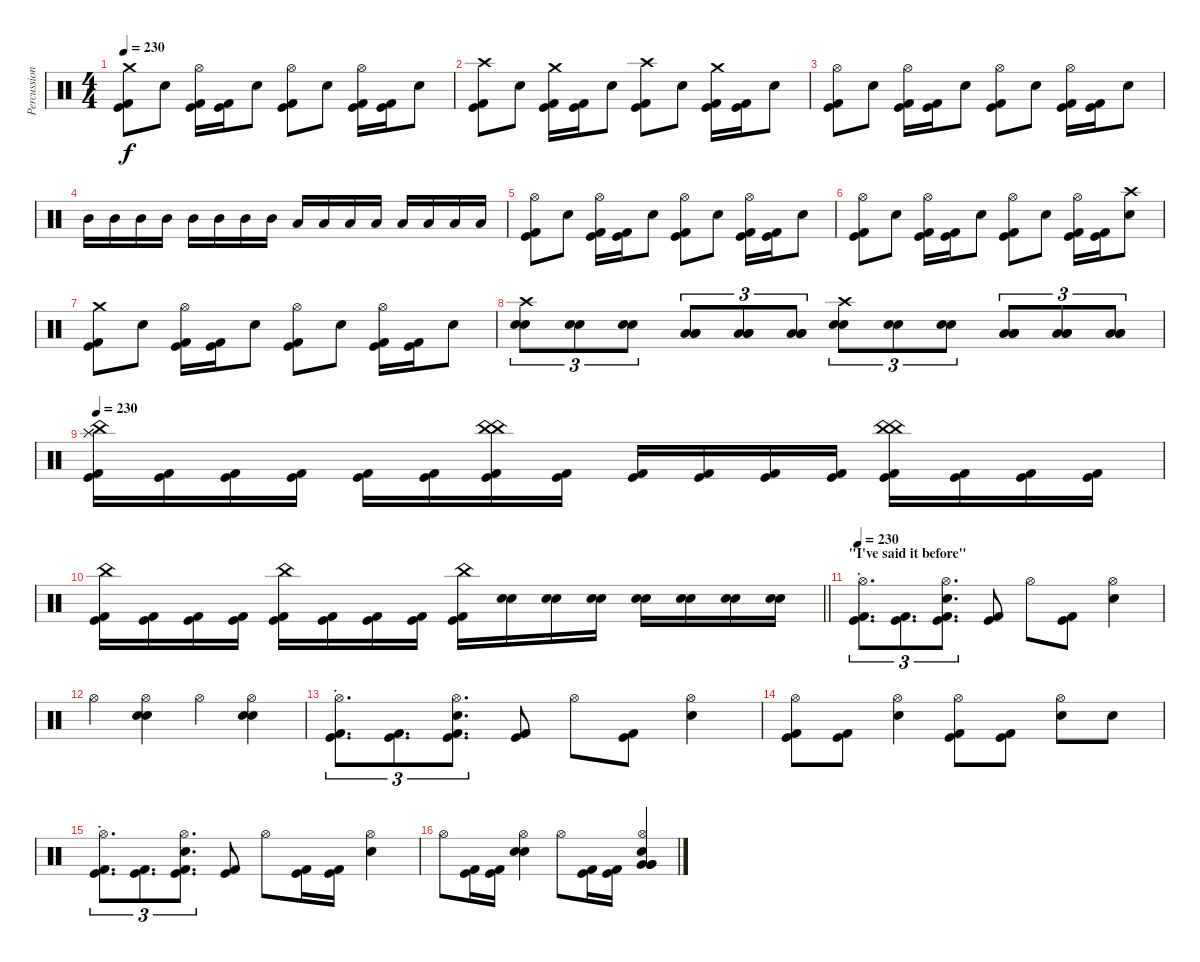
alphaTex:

\track ("Percussion" "Percussion") {instrument percussion}
\staff {score}
\articulation defaults
\ts (4 4)
\tempo 230
\clef neutral
\ks c
("Crash medium (hit)" "Kick (hit)" "Kick (hit) 2").8{dy f} "Electric Snare (hit)".8 ("Hi-Hat (open)" "Kick (hit)" "Kick (hit) 2").16 ("Kick (hit)" "Kick (hit) 2").16 "Electric Snare (hit)".8 ("Hi-Hat (open)" "Kick (hit)" "Kick (hit) 2").8 "Electric Snare (hit)".8 ("Hi-Hat (open)" "Kick (hit)" "Kick (hit) 2").16 ("Kick (hit)" "Kick (hit) 2").16 "Electric Snare (hit)".8 |
("Crash high (hit)" "Kick (hit)" "Kick (hit) 2").8 "Electric Snare (hit)".8 ("Crash medium (hit)" "Kick (hit)" "Kick (hit) 2").16 ("Kick (hit)" "Kick (hit) 2").16 "Electric Snare (hit)".8 ("Crash high (hit)" "Kick (hit)" "Kick (hit) 2").8 "Electric Snare (hit)".8 ("Crash medium (hit)" "Kick (hit)" "Kick (hit) 2").16 ("Kick (hit)" "Kick (hit) 2").16 "Electric Snare (hit)".8 |
("Hi-Hat (open)" "Kick (hit)" "Kick (hit) 2").8 "Electric Snare (hit)".8 ("Hi-Hat (open)" "Kick (hit)" "Kick (hit) 2").16 ("Kick (hit)" "Kick (hit) 2").16 "Electric Snare (hit)".8 ("Hi-Hat (open)" "Kick (hit)" "Kick (hit) 2").8 "Electric Snare (hit)".8 ("Hi-Hat (open)" "Kick (hit)" "Kick (hit) 2").16 ("Kick (hit)" "Kick (hit) 2").16 "Electric Snare (hit)".8 |
"Mid Tom (hit)".16 "Mid Tom (hit)".16 "Mid Tom (hit)".16 "Mid Tom (hit)".16 "Mid Tom (hit)".16 "Mid Tom (hit)".16 "Mid Tom (hit)".16 "Mid Tom (hit)".16 "Low Tom (hit)".16 "Low Tom (hit)".16 "Low Tom (hit)".16 "Low Tom (hit)".16 "Low Tom (hit)".16 "Low Tom (hit)".16 "Low Tom (hit)".16 "Low Tom (hit)".16 |
("Hi-Hat (open)" "Kick (hit)" "Kick (hit) 2").8 "Electric Snare (hit)".8 ("Hi-Hat (open)" "Kick (hit)" "Kick (hit) 2").16 ("Kick (hit)" "Kick (hit) 2").16 "Electric Snare (hit)".8 ("Hi-Hat (open)" "Kick (hit)" "Kick (hit) 2").8 "Electric Snare (hit)".8 ("Hi-Hat (open)" "Kick (hit)" "Kick (hit) 2").16 ("Kick (hit)" "Kick (hit) 2").16 "Electric Snare (hit)".8 |
("Hi-Hat (open)" "Kick (hit)" "Kick (hit) 2").8 "Electric Snare (hit)".8 ("Hi-Hat (open)" "Kick (hit)" "Kick (hit) 2").16 ("Kick (hit)" "Kick (hit) 2").16 "Electric Snare (hit)".8 ("Hi-Hat (open)" "Kick (hit)" "Kick (hit) 2").8 "Electric Snare (hit)".8 ("Hi-Hat (open)" "Kick (hit)" "Kick (hit) 2").16 ("Kick (hit)" "Kick (hit) 2").16 ("Crash high (hit)" "Electric Snare (hit)").8 |
("Crash medium (hit)" "Kick (hit)" "Kick (hit) 2").8 "Electric Snare (hit)".8 ("Hi-Hat (open)" "Kick (hit)" "Kick (hit) 2").16 ("Kick (hit)" "Kick (hit) 2").16 "Electric Snare (hit)".8 ("Hi-Hat (open)" "Kick (hit)" "Kick (hit) 2").8 "Electric Snare (hit)".8 ("Hi-Hat (open)" "Kick (hit)" "Kick (hit) 2").16 ("Kick (hit)" "Kick (hit) 2").16 "Electric Snare (hit)".8 |
("Crash high (hit)" "Snare (hit) 2" "Electric Snare (hit)").8{tu (3 2)} ("Snare (hit) 2" "Electric Snare (hit)").8{tu (3 2)} ("Snare (hit) 2" "Electric Snare (hit)").8{tu (3 2)} ("Low Tom (hit)" "Low Tom (hit)" "Low Tom (hit)").8{tu (3 2)} ("Low Tom (hit)" "Low Tom (hit)" "Low Tom (hit)").8{tu (3 2)} ("Low Tom (hit)" "Low Tom (hit)" "Low Tom (hit)").8{tu (3 2)} ("Crash high (hit)" "Snare (hit) 2" "Electric Snare (hit)").8{tu (3 2)} ("Snare (hit) 2" "Electric Snare (hit)").8{tu (3 2)} ("Snare (hit) 2" "Electric Snare (hit)").8{tu (3 2)} ("Low Tom (hit)" "Low Tom (hit)" "Low Tom (hit)").8{tu (3 2)} ("Low Tom (hit)" "Low Tom (hit)" "Low Tom (hit)").8{tu (3 2)} ("Low Tom (hit)" "Low Tom (hit)" "Low Tom (hit)").8{tu (3 2)} |
\tempo 230
("China (hit)" "Splash (hit)" "Splash (hit)" "Kick (hit)" "Kick (hit) 2").16 ("Kick (hit)" "Kick (hit) 2").16 ("Kick (hit)" "Kick (hit) 2").16 ("Kick (hit)" "Kick (hit) 2").16 ("Kick (hit)" "Kick (hit) 2").16 ("Kick (hit)" "Kick (hit) 2").16 ("China (hit)" "China (hit)" "Kick (hit)" "Kick (hit) 2").16 ("Kick (hit)" "Kick (hit) 2").16 ("Kick (hit)" "Kick (hit) 2").16 ("Kick (hit)" "Kick (hit) 2").16 ("Kick (hit)" "Kick (hit) 2").16 ("Kick (hit)" "Kick (hit) 2").16 ("China (hit)" "China (hit)" "Kick (hit)" "Kick (hit) 2").16 ("Kick (hit)" "Kick (hit) 2").16 ("Kick (hit)" "Kick (hit) 2").16 ("Kick (hit)" "Kick (hit) 2").16 |
\barLineRight lightlight
("China (hit)" "Kick (hit)" "Kick (hit) 2").16 ("Kick (hit)" "Kick (hit) 2").16 ("Kick (hit)" "Kick (hit) 2").16 ("Kick (hit)" "Kick (hit) 2").16 ("China (hit)" "Kick (hit)" "Kick (hit) 2").16 ("Kick (hit)" "Kick (hit) 2").16 ("Kick (hit)" "Kick (hit) 2").16 ("Kick (hit)" "Kick (hit) 2").16 ("China (hit)" "Kick (hit)" "Kick (hit) 2").16 ("Electric Snare (hit)" "Snare (hit) 2").16 ("Electric Snare (hit)" "Snare (hit) 2").16 ("Electric Snare (hit)" "Snare (hit) 2").16 ("Electric Snare (hit)" "Snare (hit) 2").16 ("Electric Snare (hit)" "Snare (hit) 2").16 ("Electric Snare (hit)" "Snare (hit) 2").16 ("Electric Snare (hit)" "Snare (hit) 2").16 |
\section ("" "\"I've said it before\"")
\tempo 230
("Hi-Hat (open)" "Kick (hit)" "Kick (hit) 2"{st}).8{d tu (3 2)} ("Kick (hit)" "Kick (hit) 2").8{d tu (3 2)} ("Hi-Hat (open)" "Electric Snare (hit)" "Kick (hit)" "Kick (hit) 2").8{d tu (3 2)} ("Kick (hit)" "Kick (hit) 2").8 "Hi-Hat (open)".8 ("Kick (hit)" "Kick (hit) 2").8 ("Hi-Hat (open)" "Electric Snare (hit)").4 |
"Hi-Hat (open)".4 ("Hi-Hat (open)" "Electric Snare (hit)" "Electric Snare (hit)").4 "Hi-Hat (open)".4 ("Hi-Hat (open)" "Electric Snare (hit)" "Electric Snare (hit)").4 |
("Hi-Hat (open)" "Kick (hit)" "Kick (hit) 2"{st}).8{d tu (3 2)} ("Kick (hit)" "Kick (hit) 2").8{d tu (3 2)} ("Hi-Hat (open)" "Electric Snare (hit)" "Kick (hit)" "Kick (hit) 2").8{d tu (3 2)} ("Kick (hit)" "Kick (hit) 2").8 "Hi-Hat (open)".8 ("Kick (hit)" "Kick (hit) 2").8 ("Hi-Hat (open)" "Electric Snare (hit)").4 |
("Hi-Hat (open)" "Kick (hit)" "Kick (hit) 2").8 ("Kick (hit)" "Kick (hit) 2").8 ("Hi-Hat (open)" "Electric Snare (hit)").4 ("Hi-Hat (open)" "Kick (hit)" "Kick (hit) 2").8 ("Kick (hit)" "Kick (hit) 2").8 ("Hi-Hat (open)" "Electric Snare (hit)").8 "Electric Snare (hit)".8 |
("Hi-Hat (open)" "Kick (hit)" "Kick (hit) 2"{st}).8{d tu (3 2)} ("Kick (hit)" "Kick (hit) 2").8{d tu (3 2)} ("Hi-Hat (open)" "Electric Snare (hit)" "Kick (hit)" "Kick (hit) 2").8{d tu (3 2)} ("Kick (hit)" "Kick (hit) 2").8 "Hi-Hat (open)".8 ("Kick (hit)" "Kick (hit) 2").16 ("Kick (hit)" "Kick (hit) 2").16 ("Hi-Hat (open)" "Electric Snare (hit)").4 |
"Hi-Hat (open)".8 ("Kick (hit)" "Kick (hit) 2").16 ("Kick (hit)" "Kick (hit) 2").16 ("Hi-Hat (open)" "Electric Snare (hit)" "Electric Snare (hit)").4 "Hi-Hat (open)".8 ("Kick (hit)" "Kick (hit) 2").16 ("Kick (hit)" "Kick (hit) 2").16 ("Hi-Hat (open)" "Electric Snare (hit)" "Very Low Tom (hit)" "Very Low Tom (hit)" "Very Low Tom (hit)").4
